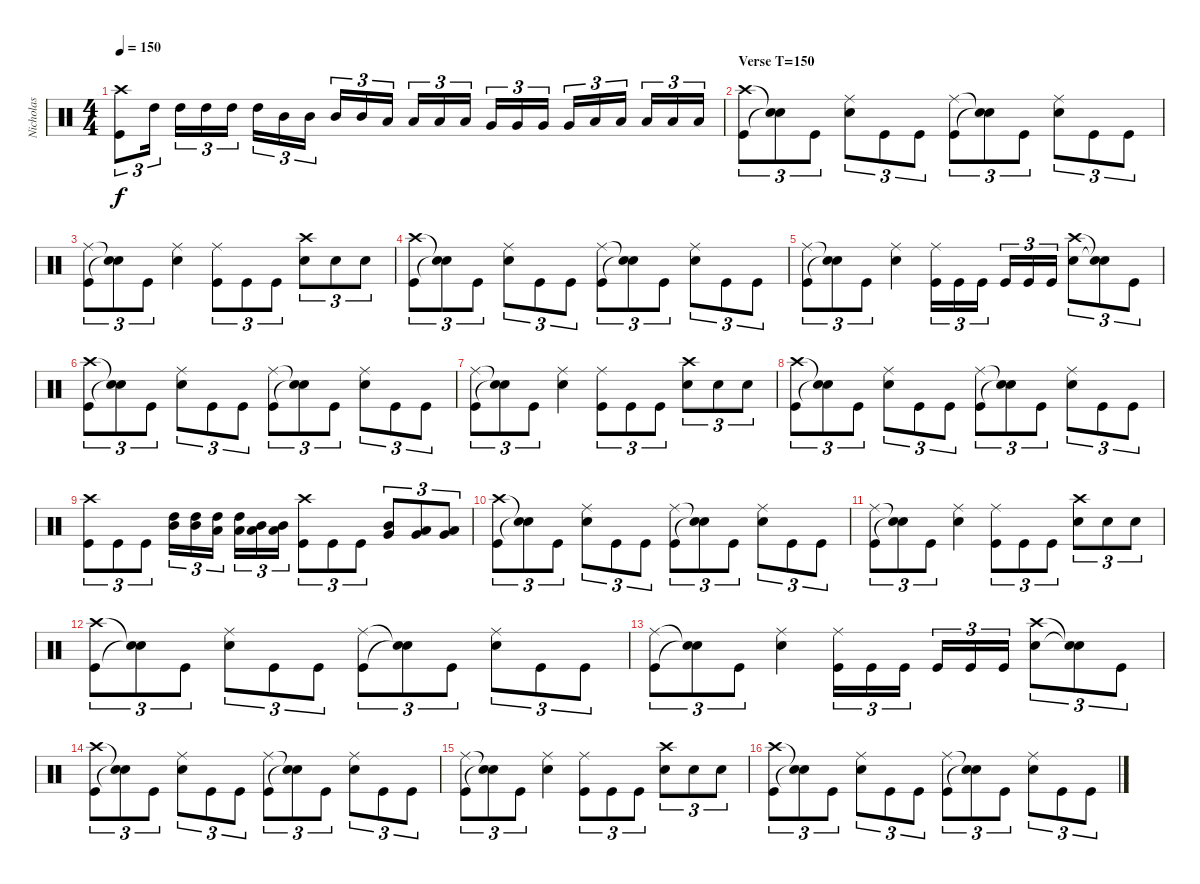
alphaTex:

\track ("Nicholas" "Nicholas") {instrument percussion}
\staff {score}
\articulation defaults
\ts (4 4)
\tempo 150
\clef neutral
\ks c
("Crash high (hit)" "Kick (hit)").8{tu (3 2) dy f} "High Tom (hit)".16{tu (3 2) balance 16} "High Tom (hit)".16{tu (3 2)} "High Tom (hit)".16{tu (3 2)} "High Tom (hit)".16{tu (3 2)} "High Tom (hit)".16{tu (3 2)} "Mid Tom (hit)".16{tu (3 2) balance 12} "Mid Tom (hit)".16{tu (3 2)} "Mid Tom (hit)".16{tu (3 2)} "Mid Tom (hit)".16{tu (3 2)} "Low Tom (hit)".16{tu (3 2) balance 10} "Low Tom (hit)".16{tu (3 2)} "Low Tom (hit)".16{tu (3 2)} "Low Tom (hit)".16{tu (3 2)} "Very Low Tom (hit)".16{tu (3 2) balance 5} "Very Low Tom (hit)".16{tu (3 2)} "Very Low Tom (hit)".16{tu (3 2)} "Very Low Tom (hit)".16{tu (3 2)} "Low Floor Tom (hit)".16{tu (3 2) balance 3} "Low Floor Tom (hit)".16{tu (3 2)} "Low Floor Tom (hit)".16{tu (3 2)} "Low Floor Tom (hit)".16{tu (3 2)} "Low Floor Tom (hit)".16{tu (3 2)} |
\section ("" "Verse T=150")
("Crash high (hit)" "Kick (hit)").8{tu (3 2) balance 8} ("Snare (hit)"{t} "Snare (hit)"{t}).8{tu (3 2)} "Kick (hit)".8{tu (3 2)} ("Ride (middle)" "Electric Snare (hit)").8{tu (3 2)} "Kick (hit)".8{tu (3 2)} "Kick (hit)".8{tu (3 2)} ("Ride (middle)" "Kick (hit)").8{tu (3 2)} ("Snare (hit)"{t} "Snare (hit)"{t}).8{tu (3 2)} "Kick (hit)".8{tu (3 2)} ("Ride (middle)" "Electric Snare (hit)").8{tu (3 2)} "Kick (hit)".8{tu (3 2)} "Kick (hit)".8{tu (3 2)} |
("Ride (middle)" "Kick (hit)").8{tu (3 2)} ("Snare (hit)"{t} "Snare (hit)"{t}).8{tu (3 2)} "Kick (hit)".8{tu (3 2)} ("Ride (middle)" "Electric Snare (hit)").4 ("Ride (middle)" "Kick (hit)").8{tu (3 2)} "Kick (hit)".8{tu (3 2)} "Kick (hit)".8{tu (3 2)} ("Crash high (hit)" "Electric Snare (hit)").8{tu (3 2)} "Electric Snare (hit)".8{tu (3 2)} "Electric Snare (hit)".8{tu (3 2)} |
("Crash high (hit)" "Kick (hit)").8{tu (3 2)} ("Snare (hit)"{t} "Snare (hit)"{t}).8{tu (3 2)} "Kick (hit)".8{tu (3 2)} ("Ride (middle)" "Electric Snare (hit)").8{tu (3 2)} "Kick (hit)".8{tu (3 2)} "Kick (hit)".8{tu (3 2)} ("Ride (middle)" "Kick (hit)").8{tu (3 2)} ("Snare (hit)"{t} "Snare (hit)"{t}).8{tu (3 2)} "Kick (hit)".8{tu (3 2)} ("Ride (middle)" "Electric Snare (hit)").8{tu (3 2)} "Kick (hit)".8{tu (3 2)} "Kick (hit)".8{tu (3 2)} |
("Ride (middle)" "Kick (hit)").8{tu (3 2)} ("Snare (hit)"{t} "Snare (hit)"{t}).8{tu (3 2)} "Kick (hit)".8{tu (3 2)} ("Ride (middle)" "Electric Snare (hit)").4 ("Ride (middle)" "Kick (hit)").16{tu (3 2)} "Kick (hit)".16{tu (3 2)} "Kick (hit)".16{tu (3 2)} "Kick (hit)".16{tu (3 2)} "Kick (hit)".16{tu (3 2)} "Kick (hit)".16{tu (3 2)} ("Crash high (hit)" "Electric Snare (hit)").8{tu (3 2)} ("Snare (hit)"{t} "Snare (hit)"{t}).8{tu (3 2)} "Kick (hit)".8{tu (3 2)} |
("Crash high (hit)" "Kick (hit)").8{tu (3 2) balance 8} ("Snare (hit)"{t} "Snare (hit)"{t}).8{tu (3 2)} "Kick (hit)".8{tu (3 2)} ("Ride (middle)" "Electric Snare (hit)").8{tu (3 2)} "Kick (hit)".8{tu (3 2)} "Kick (hit)".8{tu (3 2)} ("Ride (middle)" "Kick (hit)").8{tu (3 2)} ("Snare (hit)"{t} "Snare (hit)"{t}).8{tu (3 2)} "Kick (hit)".8{tu (3 2)} ("Ride (middle)" "Electric Snare (hit)").8{tu (3 2)} "Kick (hit)".8{tu (3 2)} "Kick (hit)".8{tu (3 2)} |
("Ride (middle)" "Kick (hit)").8{tu (3 2)} ("Snare (hit)"{t} "Snare (hit)"{t}).8{tu (3 2)} "Kick (hit)".8{tu (3 2)} ("Ride (middle)" "Electric Snare (hit)").4 ("Ride (middle)" "Kick (hit)").8{tu (3 2)} "Kick (hit)".8{tu (3 2)} "Kick (hit)".8{tu (3 2)} ("Crash high (hit)" "Electric Snare (hit)").8{tu (3 2)} "Electric Snare (hit)".8{tu (3 2)} "Electric Snare (hit)".8{tu (3 2)} |
("Crash high (hit)" "Kick (hit)").8{tu (3 2)} ("Snare (hit)"{t} "Snare (hit)"{t}).8{tu (3 2)} "Kick (hit)".8{tu (3 2)} ("Ride (middle)" "Electric Snare (hit)").8{tu (3 2)} "Kick (hit)".8{tu (3 2)} "Kick (hit)".8{tu (3 2)} ("Ride (middle)" "Kick (hit)").8{tu (3 2)} ("Snare (hit)"{t} "Snare (hit)"{t}).8{tu (3 2)} "Kick (hit)".8{tu (3 2)} ("Ride (middle)" "Electric Snare (hit)").8{tu (3 2)} "Kick (hit)".8{tu (3 2)} "Kick (hit)".8{tu (3 2)} |
("Crash high (hit)" "Kick (hit)").8{tu (3 2)} "Kick (hit)".8{tu (3 2)} "Kick (hit)".8{tu (3 2)} ("High Tom (hit)" "Mid Tom (hit)").16{tu (3 2) balance 11} ("High Tom (hit)" "Mid Tom (hit)").16{tu (3 2)} ("High Tom (hit)" "Low Tom (hit)").16{tu (3 2)} ("High Tom (hit)" "Low Tom (hit)").16{tu (3 2)} ("Mid Tom (hit)" "Low Tom (hit)").16{tu (3 2)} ("Mid Tom (hit)" "Low Tom (hit)").16{tu (3 2)} ("Crash high (hit)" "Kick (hit)").8{tu (3 2) balance 8} "Kick (hit)".8{tu (3 2)} "Kick (hit)".8{tu (3 2)} ("Mid Tom (hit)" "Very Low Tom (hit)").8{tu (3 2) balance 5} ("Low Tom (hit)" "Very Low Tom (hit)").8{tu (3 2)} ("Low Tom (hit)" "Very Low Tom (hit)").8{tu (3 2)} |
("Crash high (hit)" "Kick (hit)").8{tu (3 2) balance 8} ("Snare (hit)"{t} "Snare (hit)"{t}).8{tu (3 2)} "Kick (hit)".8{tu (3 2)} ("Ride (middle)" "Electric Snare (hit)").8{tu (3 2)} "Kick (hit)".8{tu (3 2)} "Kick (hit)".8{tu (3 2)} ("Ride (middle)" "Kick (hit)").8{tu (3 2)} ("Snare (hit)"{t} "Snare (hit)"{t}).8{tu (3 2)} "Kick (hit)".8{tu (3 2)} ("Ride (middle)" "Electric Snare (hit)").8{tu (3 2)} "Kick (hit)".8{tu (3 2)} "Kick (hit)".8{tu (3 2)} |
("Ride (middle)" "Kick (hit)").8{tu (3 2)} ("Snare (hit)"{t} "Snare (hit)"{t}).8{tu (3 2)} "Kick (hit)".8{tu (3 2)} ("Ride (middle)" "Electric Snare (hit)").4 ("Ride (middle)" "Kick (hit)").8{tu (3 2)} "Kick (hit)".8{tu (3 2)} "Kick (hit)".8{tu (3 2)} ("Crash high (hit)" "Electric Snare (hit)").8{tu (3 2)} "Electric Snare (hit)".8{tu (3 2)} "Electric Snare (hit)".8{tu (3 2)} |
("Crash high (hit)" "Kick (hit)").8{tu (3 2)} ("Snare (hit)"{t} "Snare (hit)"{t}).8{tu (3 2)} "Kick (hit)".8{tu (3 2)} ("Ride (middle)" "Electric Snare (hit)").8{tu (3 2)} "Kick (hit)".8{tu (3 2)} "Kick (hit)".8{tu (3 2)} ("Ride (middle)" "Kick (hit)").8{tu (3 2)} ("Snare (hit)"{t} "Snare (hit)"{t}).8{tu (3 2)} "Kick (hit)".8{tu (3 2)} ("Ride (middle)" "Electric Snare (hit)").8{tu (3 2)} "Kick (hit)".8{tu (3 2)} "Kick (hit)".8{tu (3 2)} |
("Ride (middle)" "Kick (hit)").8{tu (3 2)} ("Snare (hit)"{t} "Snare (hit)"{t}).8{tu (3 2)} "Kick (hit)".8{tu (3 2)} ("Ride (middle)" "Electric Snare (hit)").4 ("Ride (middle)" "Kick (hit)").16{tu (3 2)} "Kick (hit)".16{tu (3 2)} "Kick (hit)".16{tu (3 2)} "Kick (hit)".16{tu (3 2)} "Kick (hit)".16{tu (3 2)} "Kick (hit)".16{tu (3 2)} ("Crash high (hit)" "Electric Snare (hit)").8{tu (3 2)} ("Snare (hit)"{t} "Snare (hit)"{t}).8{tu (3 2)} "Kick (hit)".8{tu (3 2)} |
("Crash high (hit)" "Kick (hit)").8{tu (3 2) balance 8} ("Snare (hit)"{t} "Snare (hit)"{t}).8{tu (3 2)} "Kick (hit)".8{tu (3 2)} ("Ride (middle)" "Electric Snare (hit)").8{tu (3 2)} "Kick (hit)".8{tu (3 2)} "Kick (hit)".8{tu (3 2)} ("Ride (middle)" "Kick (hit)").8{tu (3 2)} ("Snare (hit)"{t} "Snare (hit)"{t}).8{tu (3 2)} "Kick (hit)".8{tu (3 2)} ("Ride (middle)" "Electric Snare (hit)").8{tu (3 2)} "Kick (hit)".8{tu (3 2)} "Kick (hit)".8{tu (3 2)} |
("Ride (middle)" "Kick (hit)").8{tu (3 2)} ("Snare (hit)"{t} "Snare (hit)"{t}).8{tu (3 2)} "Kick (hit)".8{tu (3 2)} ("Ride (middle)" "Electric Snare (hit)").4 ("Ride (middle)" "Kick (hit)").8{tu (3 2)} "Kick (hit)".8{tu (3 2)} "Kick (hit)".8{tu (3 2)} ("Crash high (hit)" "Electric Snare (hit)").8{tu (3 2)} "Electric Snare (hit)".8{tu (3 2)} "Electric Snare (hit)".8{tu (3 2)} |
("Crash high (hit)" "Kick (hit)").8{tu (3 2)} ("Snare (hit)"{t} "Snare (hit)"{t}).8{tu (3 2)} "Kick (hit)".8{tu (3 2)} ("Ride (middle)" "Electric Snare (hit)").8{tu (3 2)} "Kick (hit)".8{tu (3 2)} "Kick (hit)".8{tu (3 2)} ("Ride (middle)" "Kick (hit)").8{tu (3 2)} ("Snare (hit)"{t} "Snare (hit)"{t}).8{tu (3 2)} "Kick (hit)".8{tu (3 2)} ("Ride (middle)" "Electric Snare (hit)").8{tu (3 2)} "Kick (hit)".8{tu (3 2)} "Kick (hit)".8{tu (3 2)}
